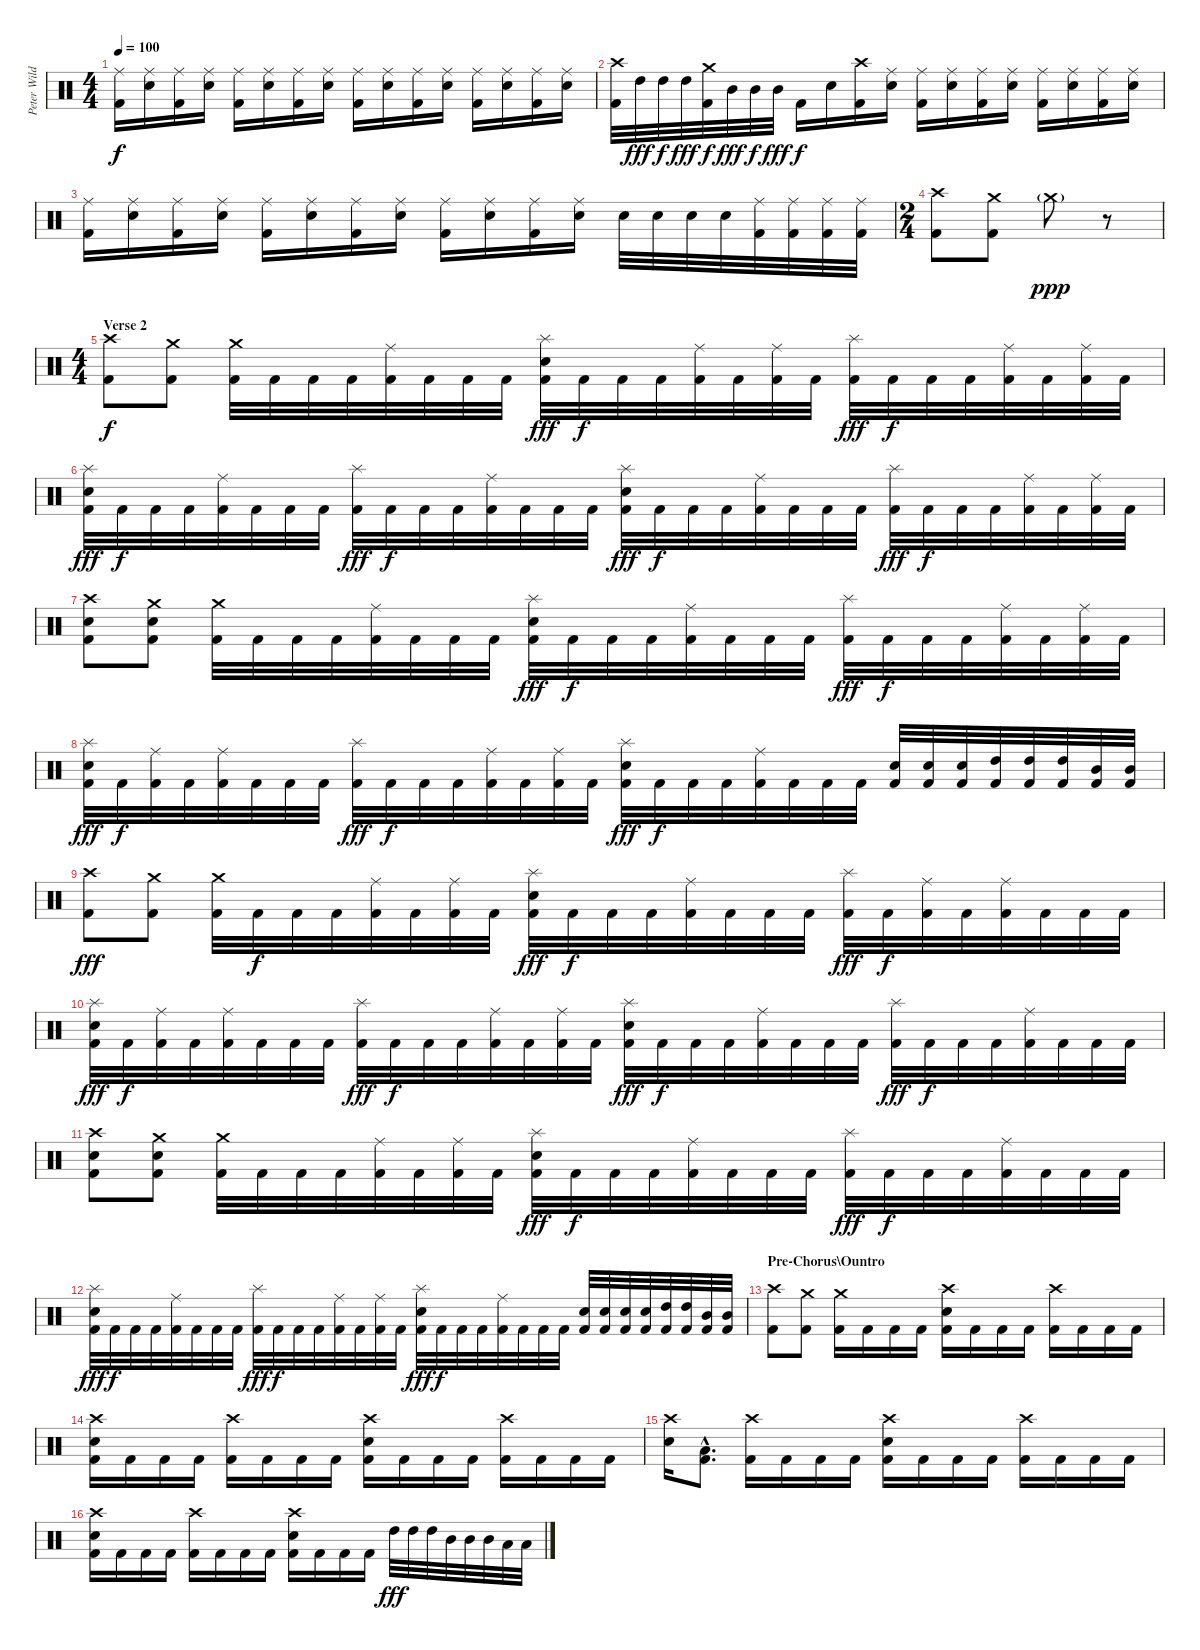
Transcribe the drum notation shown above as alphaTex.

\track ("Peter Wildoer" "Peter Wild") {instrument percussion}
\staff {score}
\articulation defaults
\ts (4 4)
\tempo 100
\clef neutral
\ks c
("Ride (middle)" "Kick (hit) 2").16{dy f} ("Ride (middle)" "Electric Snare (hit)").16 ("Ride (middle)" "Kick (hit) 2").16 ("Ride (middle)" "Electric Snare (hit)").16 ("Ride (middle)" "Kick (hit) 2").16 ("Ride (middle)" "Electric Snare (hit)").16 ("Ride (middle)" "Kick (hit) 2").16 ("Ride (middle)" "Electric Snare (hit)").16 ("Ride (middle)" "Kick (hit) 2").16 ("Ride (middle)" "Electric Snare (hit)").16 ("Ride (middle)" "Kick (hit) 2").16 ("Ride (middle)" "Electric Snare (hit)").16 ("Ride (middle)" "Kick (hit) 2").16 ("Ride (middle)" "Electric Snare (hit)").16 ("Ride (middle)" "Kick (hit) 2").16 ("Ride (middle)" "Electric Snare (hit)").16 |
("Crash high (hit)" "Kick (hit) 2").32 "High Tom (hit)".32{dy fff} "High Tom (hit)".32{dy f} "High Tom (hit)".32{dy fff} ("Crash medium (hit)" "Kick (hit) 2").32{dy f} "Mid Tom (hit)".32{dy fff} "Mid Tom (hit)".32{dy f} "Mid Tom (hit)".32{dy fff} "Kick (hit) 2".16{dy f} "Electric Snare (hit)".16 ("Crash high (hit)" "Kick (hit) 2").16 ("Ride (middle)" "Electric Snare (hit)").16 ("Ride (middle)" "Kick (hit) 2").16 ("Ride (middle)" "Electric Snare (hit)").16 ("Ride (middle)" "Kick (hit) 2").16 ("Ride (middle)" "Electric Snare (hit)").16 ("Ride (middle)" "Kick (hit) 2").16 ("Ride (middle)" "Electric Snare (hit)").16 ("Ride (middle)" "Kick (hit) 2").16 ("Ride (middle)" "Electric Snare (hit)").16 |
("Ride (middle)" "Kick (hit) 2").16 ("Ride (middle)" "Electric Snare (hit)").16 ("Ride (middle)" "Kick (hit) 2").16 ("Ride (middle)" "Electric Snare (hit)").16 ("Ride (middle)" "Kick (hit) 2").16 ("Ride (middle)" "Electric Snare (hit)").16 ("Ride (middle)" "Kick (hit) 2").16 ("Ride (middle)" "Electric Snare (hit)").16 ("Ride (middle)" "Kick (hit) 2").16 ("Ride (middle)" "Electric Snare (hit)").16 ("Ride (middle)" "Kick (hit) 2").16 ("Ride (middle)" "Electric Snare (hit)").16 "Electric Snare (hit)".32 "Electric Snare (hit)".32 "Electric Snare (hit)".32 "Electric Snare (hit)".32 ("Ride (middle)" "Kick (hit) 2").32 ("Ride (middle)" "Kick (hit) 2").32 ("Ride (middle)" "Kick (hit) 2").32 ("Ride (middle)" "Kick (hit) 2").32 |
\ts (2 4)
("Crash high (hit)" "Kick (hit) 2").8 ("Crash medium (hit)" "Kick (hit) 2").8 "Crash medium (hit)"{g}.8{dy ppp volume 0} r.8 |
\ts (4 4)
\section ("" "Verse 2")
("Crash high (hit)" "Kick (hit) 2").8{dy f volume 16} ("Crash medium (hit)" "Kick (hit) 2").8 ("Crash medium (hit)" "Kick (hit) 2").32 "Kick (hit) 2".32 "Kick (hit) 2".32 "Kick (hit) 2".32 ("Ride (middle)" "Kick (hit) 2").32 "Kick (hit) 2".32 "Kick (hit) 2".32 "Kick (hit) 2".32 ("Splash (hit)" "Electric Snare (hit)" "Kick (hit) 2").32{dy fff} "Kick (hit) 2".32{dy f} "Kick (hit) 2".32 "Kick (hit) 2".32 ("Ride (middle)" "Kick (hit) 2").32 "Kick (hit) 2".32 ("Ride (middle)" "Kick (hit) 2").32 "Kick (hit) 2".32 ("Splash (hit)" "Kick (hit) 2").32{dy fff} "Kick (hit) 2".32{dy f} "Kick (hit) 2".32 "Kick (hit) 2".32 ("Ride (middle)" "Kick (hit) 2").32 "Kick (hit) 2".32 ("Ride (middle)" "Kick (hit) 2").32 "Kick (hit) 2".32 |
("Splash (hit)" "Electric Snare (hit)" "Kick (hit) 2").32{dy fff} "Kick (hit) 2".32{dy f} "Kick (hit) 2".32 "Kick (hit) 2".32 ("Ride (middle)" "Kick (hit) 2").32 "Kick (hit) 2".32 "Kick (hit) 2".32 "Kick (hit) 2".32 ("Splash (hit)" "Kick (hit) 2").32{dy fff} "Kick (hit) 2".32{dy f} "Kick (hit) 2".32 "Kick (hit) 2".32 ("Ride (middle)" "Kick (hit) 2").32 "Kick (hit) 2".32 "Kick (hit) 2".32 "Kick (hit) 2".32 ("Splash (hit)" "Electric Snare (hit)" "Kick (hit) 2").32{dy fff} "Kick (hit) 2".32{dy f} "Kick (hit) 2".32 "Kick (hit) 2".32 ("Ride (middle)" "Kick (hit) 2").32 "Kick (hit) 2".32 "Kick (hit) 2".32 "Kick (hit) 2".32 ("Splash (hit)" "Kick (hit) 2").32{dy fff} "Kick (hit) 2".32{dy f} "Kick (hit) 2".32 "Kick (hit) 2".32 ("Ride (middle)" "Kick (hit) 2").32 "Kick (hit) 2".32 ("Ride (middle)" "Kick (hit) 2").32 "Kick (hit) 2".32 |
("Crash high (hit)" "Electric Snare (hit)" "Kick (hit) 2").8 ("Crash medium (hit)" "Electric Snare (hit)" "Kick (hit) 2").8 ("Crash medium (hit)" "Kick (hit) 2").32 "Kick (hit) 2".32 "Kick (hit) 2".32 "Kick (hit) 2".32 ("Ride (middle)" "Kick (hit) 2").32 "Kick (hit) 2".32 "Kick (hit) 2".32 "Kick (hit) 2".32 ("Splash (hit)" "Electric Snare (hit)" "Kick (hit) 2").32{dy fff} "Kick (hit) 2".32{dy f} "Kick (hit) 2".32 "Kick (hit) 2".32 ("Ride (middle)" "Kick (hit) 2").32 "Kick (hit) 2".32 "Kick (hit) 2".32 "Kick (hit) 2".32 ("Splash (hit)" "Kick (hit) 2").32{dy fff} "Kick (hit) 2".32{dy f} "Kick (hit) 2".32 "Kick (hit) 2".32 ("Ride (middle)" "Kick (hit) 2").32 "Kick (hit) 2".32 ("Ride (middle)" "Kick (hit) 2").32 "Kick (hit) 2".32 |
("Splash (hit)" "Electric Snare (hit)" "Kick (hit) 2").32{dy fff} "Kick (hit) 2".32{dy f} ("Ride (middle)" "Kick (hit) 2").32 "Kick (hit) 2".32 ("Ride (middle)" "Kick (hit) 2").32 "Kick (hit) 2".32 "Kick (hit) 2".32 "Kick (hit) 2".32 ("Splash (hit)" "Kick (hit) 2").32{dy fff} "Kick (hit) 2".32{dy f} "Kick (hit) 2".32 "Kick (hit) 2".32 ("Ride (middle)" "Kick (hit) 2").32 "Kick (hit) 2".32 ("Ride (middle)" "Kick (hit) 2").32 "Kick (hit) 2".32 ("Splash (hit)" "Electric Snare (hit)" "Kick (hit) 2").32{dy fff} "Kick (hit) 2".32{dy f} "Kick (hit) 2".32 "Kick (hit) 2".32 ("Ride (middle)" "Kick (hit) 2").32 "Kick (hit) 2".32 "Kick (hit) 2".32 "Kick (hit) 2".32 ("Electric Snare (hit)" "Kick (hit) 2").32 ("Electric Snare (hit)" "Kick (hit) 2").32 ("Electric Snare (hit)" "Kick (hit) 2").32 ("High Tom (hit)" "Kick (hit) 2").32 ("High Tom (hit)" "Kick (hit) 2").32 ("High Tom (hit)" "Kick (hit) 2").32 ("Mid Tom (hit)" "Kick (hit) 2").32 ("Mid Tom (hit)" "Kick (hit) 2").32 |
("Crash high (hit)" "Kick (hit) 2").8{dy fff} ("Crash medium (hit)" "Kick (hit) 2").8 ("Crash medium (hit)" "Kick (hit) 2").32 "Kick (hit) 2".32{dy f} "Kick (hit) 2".32 "Kick (hit) 2".32 ("Ride (middle)" "Kick (hit) 2").32 "Kick (hit) 2".32 ("Ride (middle)" "Kick (hit) 2").32 "Kick (hit) 2".32 ("Splash (hit)" "Electric Snare (hit)" "Kick (hit) 2").32{dy fff} "Kick (hit) 2".32{dy f} "Kick (hit) 2".32 "Kick (hit) 2".32 ("Ride (middle)" "Kick (hit) 2").32 "Kick (hit) 2".32 "Kick (hit) 2".32 "Kick (hit) 2".32 ("Splash (hit)" "Kick (hit) 2").32{dy fff} "Kick (hit) 2".32{dy f} ("Ride (middle)" "Kick (hit) 2").32 "Kick (hit) 2".32 ("Ride (middle)" "Kick (hit) 2").32 "Kick (hit) 2".32 "Kick (hit) 2".32 "Kick (hit) 2".32 |
("Splash (hit)" "Electric Snare (hit)" "Kick (hit) 2").32{dy fff} "Kick (hit) 2".32{dy f} ("Ride (middle)" "Kick (hit) 2").32 "Kick (hit) 2".32 ("Ride (middle)" "Kick (hit) 2").32 "Kick (hit) 2".32 "Kick (hit) 2".32 "Kick (hit) 2".32 ("Splash (hit)" "Kick (hit) 2").32{dy fff} "Kick (hit) 2".32{dy f} "Kick (hit) 2".32 "Kick (hit) 2".32 ("Ride (middle)" "Kick (hit) 2").32 "Kick (hit) 2".32 ("Ride (middle)" "Kick (hit) 2").32 "Kick (hit) 2".32 ("Splash (hit)" "Electric Snare (hit)" "Kick (hit) 2").32{dy fff} "Kick (hit) 2".32{dy f} "Kick (hit) 2".32 "Kick (hit) 2".32 ("Ride (middle)" "Kick (hit) 2").32 "Kick (hit) 2".32 "Kick (hit) 2".32 "Kick (hit) 2".32 ("Splash (hit)" "Kick (hit) 2").32{dy fff} "Kick (hit) 2".32{dy f} "Kick (hit) 2".32 "Kick (hit) 2".32 ("Ride (middle)" "Kick (hit) 2").32 "Kick (hit) 2".32 "Kick (hit) 2".32 "Kick (hit) 2".32 |
("Crash high (hit)" "Electric Snare (hit)" "Kick (hit) 2").8 ("Crash medium (hit)" "Electric Snare (hit)" "Kick (hit) 2").8 ("Crash medium (hit)" "Kick (hit) 2").32 "Kick (hit) 2".32 "Kick (hit) 2".32 "Kick (hit) 2".32 ("Ride (middle)" "Kick (hit) 2").32 "Kick (hit) 2".32 ("Ride (middle)" "Kick (hit) 2").32 "Kick (hit) 2".32 ("Splash (hit)" "Electric Snare (hit)" "Kick (hit) 2").32{dy fff} "Kick (hit) 2".32{dy f} "Kick (hit) 2".32 "Kick (hit) 2".32 ("Ride (middle)" "Kick (hit) 2").32 "Kick (hit) 2".32 "Kick (hit) 2".32 "Kick (hit) 2".32 ("Splash (hit)" "Kick (hit) 2").32{dy fff} "Kick (hit) 2".32{dy f} "Kick (hit) 2".32 "Kick (hit) 2".32 ("Ride (middle)" "Kick (hit) 2").32 "Kick (hit) 2".32 "Kick (hit) 2".32 "Kick (hit) 2".32 |
("Splash (hit)" "Electric Snare (hit)" "Kick (hit) 2").32{dy fff} "Kick (hit) 2".32{dy f} "Kick (hit) 2".32 "Kick (hit) 2".32 ("Ride (middle)" "Kick (hit) 2").32 "Kick (hit) 2".32 "Kick (hit) 2".32 "Kick (hit) 2".32 ("Splash (hit)" "Kick (hit) 2").32{dy fff} "Kick (hit) 2".32{dy f} "Kick (hit) 2".32 "Kick (hit) 2".32 ("Ride (middle)" "Kick (hit) 2").32 "Kick (hit) 2".32 ("Ride (middle)" "Kick (hit) 2").32 "Kick (hit) 2".32 ("Splash (hit)" "Electric Snare (hit)" "Kick (hit) 2").32{dy fff} "Kick (hit) 2".32{dy f} "Kick (hit) 2".32 "Kick (hit) 2".32 ("Ride (middle)" "Kick (hit) 2").32 "Kick (hit) 2".32 "Kick (hit) 2".32 "Kick (hit) 2".32 ("Electric Snare (hit)" "Kick (hit) 2").32 ("Electric Snare (hit)" "Kick (hit) 2").32 ("Electric Snare (hit)" "Kick (hit) 2").32 ("Electric Snare (hit)" "Kick (hit) 2").32 ("High Tom (hit)" "Kick (hit) 2").32 ("High Tom (hit)" "Kick (hit) 2").32 ("Mid Tom (hit)" "Kick (hit) 2").32 ("Mid Tom (hit)" "Kick (hit) 2").32 |
\section ("" "Pre-Chorus\\Ountro")
("Crash high (hit)" "Kick (hit) 2").8 ("Crash medium (hit)" "Kick (hit) 2").8 ("Crash medium (hit)" "Kick (hit) 2").16 "Kick (hit) 2".16 "Kick (hit) 2".16 "Kick (hit) 2".16 ("Crash high (hit)" "Electric Snare (hit)" "Kick (hit) 2").16 "Kick (hit) 2".16 "Kick (hit) 2".16 "Kick (hit) 2".16 ("Crash high (hit)" "Kick (hit) 2").16 "Kick (hit) 2".16 "Kick (hit) 2".16 "Kick (hit) 2".16 |
("Crash high (hit)" "Electric Snare (hit)" "Kick (hit) 2").16 "Kick (hit) 2".16 "Kick (hit) 2".16 "Kick (hit) 2".16 ("Crash high (hit)" "Kick (hit) 2").16 "Kick (hit) 2".16 "Kick (hit) 2".16 "Kick (hit) 2".16 ("Crash high (hit)" "Electric Snare (hit)" "Kick (hit) 2").16 "Kick (hit) 2".16 "Kick (hit) 2".16 "Kick (hit) 2".16 ("Crash high (hit)" "Kick (hit) 2").16 "Kick (hit) 2".16 "Kick (hit) 2".16 "Kick (hit) 2".16 |
("Crash high (hit)" "Electric Snare (hit)").16 ("Low Floor Tom (hit)"{hac} "Kick (hit) 2"{hac}).8{d} ("Crash high (hit)" "Kick (hit) 2").16 "Kick (hit) 2".16 "Kick (hit) 2".16 "Kick (hit) 2".16 ("Crash high (hit)" "Electric Snare (hit)" "Kick (hit) 2").16 "Kick (hit) 2".16 "Kick (hit) 2".16 "Kick (hit) 2".16 ("Crash high (hit)" "Kick (hit) 2").16 "Kick (hit) 2".16 "Kick (hit) 2".16 "Kick (hit) 2".16 |
("Crash high (hit)" "Electric Snare (hit)" "Kick (hit) 2").16 "Kick (hit) 2".16 "Kick (hit) 2".16 "Kick (hit) 2".16 ("Crash high (hit)" "Kick (hit) 2").16 "Kick (hit) 2".16 "Kick (hit) 2".16 "Kick (hit) 2".16 ("Crash high (hit)" "Electric Snare (hit)" "Kick (hit) 2").16 "Kick (hit) 2".16 "Kick (hit) 2".16 "Kick (hit) 2".16 "High Tom (hit)".32{dy fff} "High Tom (hit)".32 "High Tom (hit)".32 "Mid Tom (hit)".32 "Mid Tom (hit)".32 "Mid Tom (hit)".32 "Low Tom (hit)".32 "Low Tom (hit)".32
